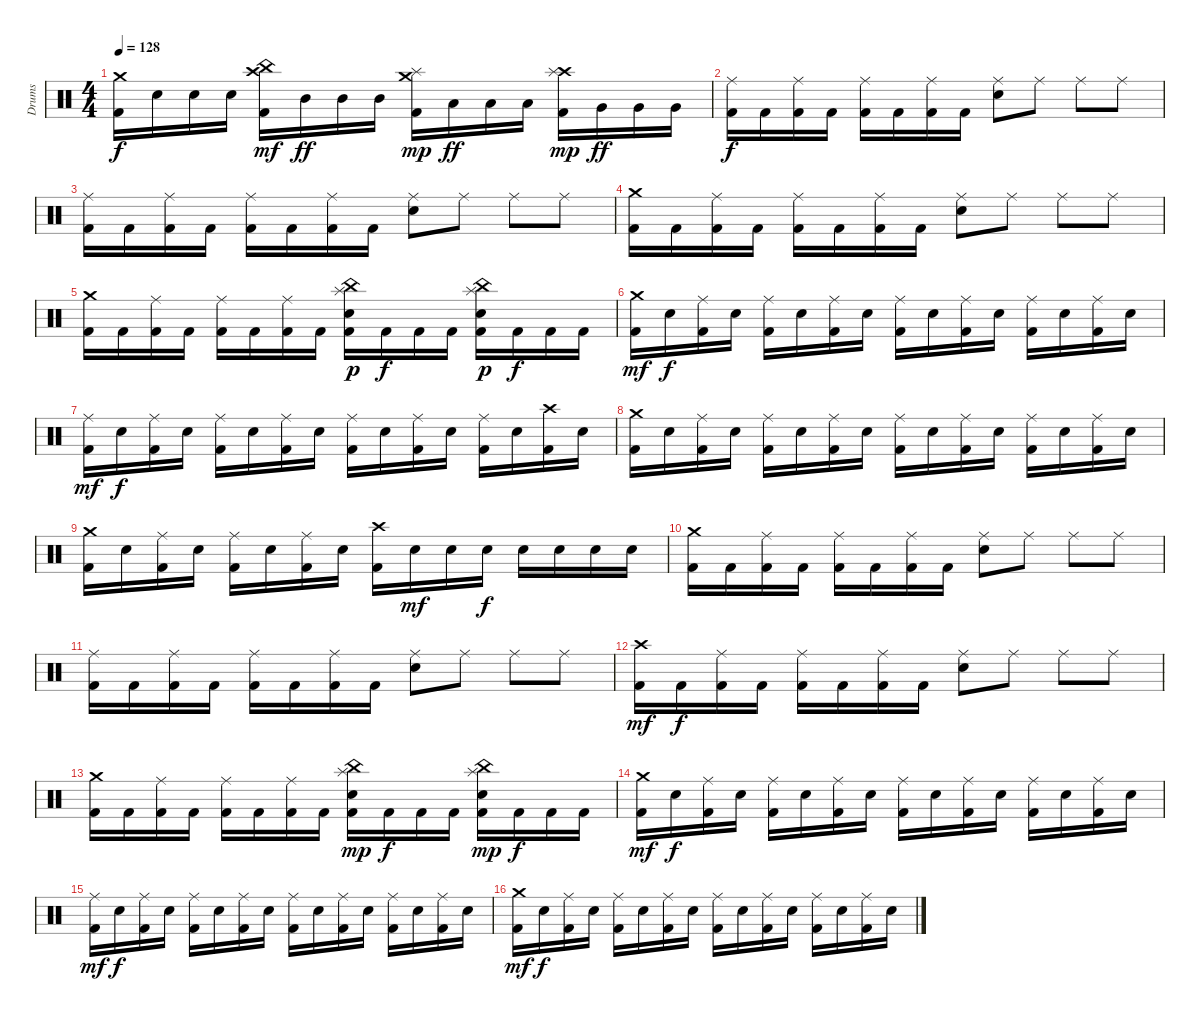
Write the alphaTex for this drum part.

\track ("Drums" "Drums") {instrument percussion}
\staff {score}
\articulation defaults
\ts (4 4)
\tempo 128
\clef neutral
\ks c
("Crash medium (hit)" "Kick (hit) 2").16{dy f} "Electric Snare (hit)".16 "Electric Snare (hit)".16 "Electric Snare (hit)".16 ("Crash high (hit)" "China (hit)" "Kick (hit) 2").16{dy mf} "Mid Tom (hit)".16{dy ff} "Mid Tom (hit)".16 "Mid Tom (hit)".16 ("Crash medium (hit)" "Splash (hit)" "Kick (hit) 2").16{dy mp} "Low Tom (hit)".16{dy ff} "Low Tom (hit)".16 "Low Tom (hit)".16 ("Crash high (hit)" "Splash (hit)" "Kick (hit) 2").16{dy mp} "Very Low Tom (hit)".16{dy ff} "Very Low Tom (hit)".16 "Very Low Tom (hit)".16 |
("Ride (middle)" "Kick (hit) 2").16{dy f} "Kick (hit) 2".16 ("Ride (middle)" "Kick (hit) 2").16 "Kick (hit) 2".16 ("Ride (middle)" "Kick (hit) 2").16 "Kick (hit) 2".16 ("Ride (middle)" "Kick (hit) 2").16 "Kick (hit) 2".16 ("Ride (middle)" "Electric Snare (hit)").8 "Ride (middle)".8 "Ride (middle)".8 "Ride (middle)".8 |
("Ride (middle)" "Kick (hit) 2").16 "Kick (hit) 2".16 ("Ride (middle)" "Kick (hit) 2").16 "Kick (hit) 2".16 ("Ride (middle)" "Kick (hit) 2").16 "Kick (hit) 2".16 ("Ride (middle)" "Kick (hit) 2").16 "Kick (hit) 2".16 ("Ride (middle)" "Electric Snare (hit)").8 "Ride (middle)".8 "Ride (middle)".8 "Ride (middle)".8 |
("Crash medium (hit)" "Kick (hit) 2").16 "Kick (hit) 2".16 ("Ride (middle)" "Kick (hit) 2").16 "Kick (hit) 2".16 ("Ride (middle)" "Kick (hit) 2").16 "Kick (hit) 2".16 ("Ride (middle)" "Kick (hit) 2").16 "Kick (hit) 2".16 ("Ride (middle)" "Electric Snare (hit)").8 "Ride (middle)".8 "Ride (middle)".8 "Ride (middle)".8 |
("Crash medium (hit)" "Kick (hit) 2").16 "Kick (hit) 2".16 ("Ride (middle)" "Kick (hit) 2").16 "Kick (hit) 2".16 ("Ride (middle)" "Kick (hit) 2").16 "Kick (hit) 2".16 ("Ride (middle)" "Kick (hit) 2").16 "Kick (hit) 2".16 ("Splash (hit)" "China (hit)" "Electric Snare (hit)" "Kick (hit) 2").16{dy p} "Kick (hit) 2".16{dy f} "Kick (hit) 2".16 "Kick (hit) 2".16 ("Splash (hit)" "China (hit)" "Electric Snare (hit)" "Kick (hit) 2").16{dy p} "Kick (hit) 2".16{dy f} "Kick (hit) 2".16 "Kick (hit) 2".16 |
("Crash medium (hit)" "Kick (hit) 2").16{dy mf} "Electric Snare (hit)".16{dy f} ("Ride (middle)" "Kick (hit) 2").16 "Electric Snare (hit)".16 ("Ride (middle)" "Kick (hit) 2").16 "Electric Snare (hit)".16 ("Ride (middle)" "Kick (hit) 2").16 "Electric Snare (hit)".16 ("Ride (middle)" "Kick (hit) 2").16 "Electric Snare (hit)".16 ("Ride (middle)" "Kick (hit) 2").16 "Electric Snare (hit)".16 ("Ride (middle)" "Kick (hit) 2").16 "Electric Snare (hit)".16 ("Ride (middle)" "Kick (hit) 2").16 "Electric Snare (hit)".16 |
("Ride (middle)" "Kick (hit) 2").16{dy mf} "Electric Snare (hit)".16{dy f} ("Ride (middle)" "Kick (hit) 2").16 "Electric Snare (hit)".16 ("Ride (middle)" "Kick (hit) 2").16 "Electric Snare (hit)".16 ("Ride (middle)" "Kick (hit) 2").16 "Electric Snare (hit)".16 ("Ride (middle)" "Kick (hit) 2").16 "Electric Snare (hit)".16 ("Ride (middle)" "Kick (hit) 2").16 "Electric Snare (hit)".16 ("Ride (middle)" "Kick (hit) 2").16 "Electric Snare (hit)".16 ("Crash high (hit)" "Kick (hit) 2").16 "Electric Snare (hit)".16 |
("Crash medium (hit)" "Kick (hit) 2").16 "Electric Snare (hit)".16 ("Ride (middle)" "Kick (hit) 2").16 "Electric Snare (hit)".16 ("Ride (middle)" "Kick (hit) 2").16 "Electric Snare (hit)".16 ("Ride (middle)" "Kick (hit) 2").16 "Electric Snare (hit)".16 ("Ride (middle)" "Kick (hit) 2").16 "Electric Snare (hit)".16 ("Ride (middle)" "Kick (hit) 2").16 "Electric Snare (hit)".16 ("Ride (middle)" "Kick (hit) 2").16 "Electric Snare (hit)".16 ("Ride (middle)" "Kick (hit) 2").16 "Electric Snare (hit)".16 |
("Crash medium (hit)" "Kick (hit) 2").16 "Electric Snare (hit)".16 ("Ride (middle)" "Kick (hit) 2").16 "Electric Snare (hit)".16 ("Ride (middle)" "Kick (hit) 2").16 "Electric Snare (hit)".16 ("Ride (middle)" "Kick (hit) 2").16 "Electric Snare (hit)".16 ("Crash high (hit)" "Kick (hit) 2").16 "Electric Snare (hit)".16{dy mf} "Electric Snare (hit)".16 "Electric Snare (hit)".16{dy f} "Electric Snare (hit)".16 "Electric Snare (hit)".16 "Electric Snare (hit)".16 "Electric Snare (hit)".16 |
("Crash medium (hit)" "Kick (hit) 2").16 "Kick (hit) 2".16 ("Ride (middle)" "Kick (hit) 2").16 "Kick (hit) 2".16 ("Ride (middle)" "Kick (hit) 2").16 "Kick (hit) 2".16 ("Ride (middle)" "Kick (hit) 2").16 "Kick (hit) 2".16 ("Ride (middle)" "Electric Snare (hit)").8 "Ride (middle)".8 "Ride (middle)".8 "Ride (middle)".8 |
("Ride (middle)" "Kick (hit) 2").16 "Kick (hit) 2".16 ("Ride (middle)" "Kick (hit) 2").16 "Kick (hit) 2".16 ("Ride (middle)" "Kick (hit) 2").16 "Kick (hit) 2".16 ("Ride (middle)" "Kick (hit) 2").16 "Kick (hit) 2".16 ("Ride (middle)" "Electric Snare (hit)").8 "Ride (middle)".8 "Ride (middle)".8 "Ride (middle)".8 |
("Crash high (hit)" "Kick (hit) 2").16{dy mf} "Kick (hit) 2".16{dy f} ("Ride (middle)" "Kick (hit) 2").16 "Kick (hit) 2".16 ("Ride (middle)" "Kick (hit) 2").16 "Kick (hit) 2".16 ("Ride (middle)" "Kick (hit) 2").16 "Kick (hit) 2".16 ("Ride (middle)" "Electric Snare (hit)").8 "Ride (middle)".8 "Ride (middle)".8 "Ride (middle)".8 |
("Crash medium (hit)" "Kick (hit) 2").16 "Kick (hit) 2".16 ("Ride (middle)" "Kick (hit) 2").16 "Kick (hit) 2".16 ("Ride (middle)" "Kick (hit) 2").16 "Kick (hit) 2".16 ("Ride (middle)" "Kick (hit) 2").16 "Kick (hit) 2".16 ("Splash (hit)" "China (hit)" "Electric Snare (hit)" "Kick (hit) 2").16{dy mp} "Kick (hit) 2".16{dy f} "Kick (hit) 2".16 "Kick (hit) 2".16 ("Splash (hit)" "China (hit)" "Electric Snare (hit)" "Kick (hit) 2").16{dy mp} "Kick (hit) 2".16{dy f} "Kick (hit) 2".16 "Kick (hit) 2".16 |
("Crash medium (hit)" "Kick (hit) 2").16{dy mf} "Electric Snare (hit)".16{dy f} ("Ride (middle)" "Kick (hit) 2").16 "Electric Snare (hit)".16 ("Ride (middle)" "Kick (hit) 2").16 "Electric Snare (hit)".16 ("Ride (middle)" "Kick (hit) 2").16 "Electric Snare (hit)".16 ("Ride (middle)" "Kick (hit) 2").16 "Electric Snare (hit)".16 ("Ride (middle)" "Kick (hit) 2").16 "Electric Snare (hit)".16 ("Ride (middle)" "Kick (hit) 2").16 "Electric Snare (hit)".16 ("Ride (middle)" "Kick (hit) 2").16 "Electric Snare (hit)".16 |
("Ride (middle)" "Kick (hit) 2").16{dy mf} "Electric Snare (hit)".16{dy f} ("Ride (middle)" "Kick (hit) 2").16 "Electric Snare (hit)".16 ("Ride (middle)" "Kick (hit) 2").16 "Electric Snare (hit)".16 ("Ride (middle)" "Kick (hit) 2").16 "Electric Snare (hit)".16 ("Ride (middle)" "Kick (hit) 2").16 "Electric Snare (hit)".16 ("Ride (middle)" "Kick (hit) 2").16 "Electric Snare (hit)".16 ("Ride (middle)" "Kick (hit) 2").16 "Electric Snare (hit)".16 ("Ride (middle)" "Kick (hit) 2").16 "Electric Snare (hit)".16 |
("Crash medium (hit)" "Kick (hit) 2").16{dy mf} "Electric Snare (hit)".16{dy f} ("Ride (middle)" "Kick (hit) 2").16 "Electric Snare (hit)".16 ("Ride (middle)" "Kick (hit) 2").16 "Electric Snare (hit)".16 ("Ride (middle)" "Kick (hit) 2").16 "Electric Snare (hit)".16 ("Ride (middle)" "Kick (hit) 2").16 "Electric Snare (hit)".16 ("Ride (middle)" "Kick (hit) 2").16 "Electric Snare (hit)".16 ("Ride (middle)" "Kick (hit) 2").16 "Electric Snare (hit)".16 ("Ride (middle)" "Kick (hit) 2").16 "Electric Snare (hit)".16
